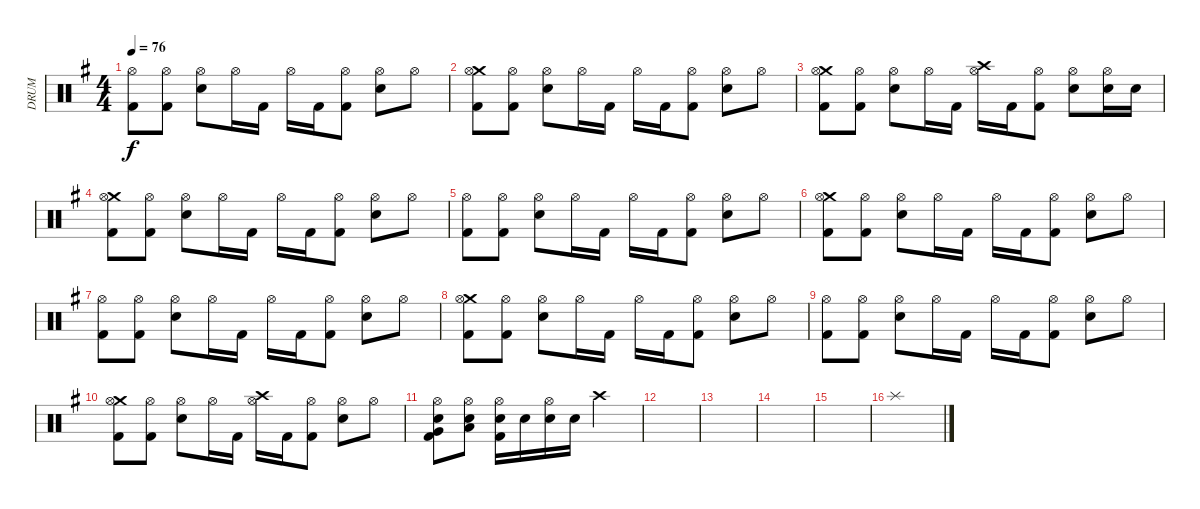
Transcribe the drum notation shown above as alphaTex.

\track ("DRUM" "DRUM") {instrument percussion}
\staff {score}
\articulation defaults
\ts (4 4)
\tempo 76
\clef neutral
\ks eminor
("Hi-Hat (open)" "Kick (hit) 2").8{dy f} ("Hi-Hat (open)" "Kick (hit) 2").8 ("Hi-Hat (open)" "Electric Snare (hit)").8 "Hi-Hat (open)".16 "Kick (hit) 2".16 "Hi-Hat (open)".16 "Kick (hit) 2".16 ("Hi-Hat (open)" "Kick (hit) 2").8 ("Hi-Hat (open)" "Electric Snare (hit)").8 "Hi-Hat (open)".8 |
("Crash medium (hit)" "Hi-Hat (open)" "Kick (hit) 2").8 ("Hi-Hat (open)" "Kick (hit) 2").8 ("Hi-Hat (open)" "Electric Snare (hit)").8 "Hi-Hat (open)".16 "Kick (hit) 2".16 "Hi-Hat (open)".16 "Kick (hit) 2".16 ("Hi-Hat (open)" "Kick (hit) 2").8 ("Hi-Hat (open)" "Electric Snare (hit)").8 "Hi-Hat (open)".8 |
("Crash medium (hit)" "Hi-Hat (open)" "Kick (hit) 2").8 ("Hi-Hat (open)" "Kick (hit) 2").8 ("Hi-Hat (open)" "Electric Snare (hit)").8 "Hi-Hat (open)".16 "Kick (hit) 2".16 ("Crash high (hit)" "Hi-Hat (open)").16 "Kick (hit) 2".16 ("Hi-Hat (open)" "Kick (hit) 2").8 ("Hi-Hat (open)" "Electric Snare (hit)").8 ("Hi-Hat (open)" "Electric Snare (hit)").16 "Electric Snare (hit)".16 |
("Crash medium (hit)" "Hi-Hat (open)" "Kick (hit) 2").8 ("Hi-Hat (open)" "Kick (hit) 2").8 ("Hi-Hat (open)" "Electric Snare (hit)").8 "Hi-Hat (open)".16 "Kick (hit) 2".16 "Hi-Hat (open)".16 "Kick (hit) 2".16 ("Hi-Hat (open)" "Kick (hit) 2").8 ("Hi-Hat (open)" "Electric Snare (hit)").8 "Hi-Hat (open)".8 |
("Hi-Hat (open)" "Kick (hit) 2").8 ("Hi-Hat (open)" "Kick (hit) 2").8 ("Hi-Hat (open)" "Electric Snare (hit)").8 "Hi-Hat (open)".16 "Kick (hit) 2".16 "Hi-Hat (open)".16 "Kick (hit) 2".16 ("Hi-Hat (open)" "Kick (hit) 2").8 ("Hi-Hat (open)" "Electric Snare (hit)").8 "Hi-Hat (open)".8 |
("Crash medium (hit)" "Hi-Hat (open)" "Kick (hit) 2").8 ("Hi-Hat (open)" "Kick (hit) 2").8 ("Hi-Hat (open)" "Electric Snare (hit)").8 "Hi-Hat (open)".16 "Kick (hit) 2".16 "Hi-Hat (open)".16 "Kick (hit) 2".16 ("Hi-Hat (open)" "Kick (hit) 2").8 ("Hi-Hat (open)" "Electric Snare (hit)").8 "Hi-Hat (open)".8 |
("Hi-Hat (open)" "Kick (hit) 2").8 ("Hi-Hat (open)" "Kick (hit) 2").8 ("Hi-Hat (open)" "Electric Snare (hit)").8 "Hi-Hat (open)".16 "Kick (hit) 2".16 "Hi-Hat (open)".16 "Kick (hit) 2".16 ("Hi-Hat (open)" "Kick (hit) 2").8 ("Hi-Hat (open)" "Electric Snare (hit)").8 "Hi-Hat (open)".8 |
("Crash medium (hit)" "Hi-Hat (open)" "Kick (hit) 2").8 ("Hi-Hat (open)" "Kick (hit) 2").8 ("Hi-Hat (open)" "Electric Snare (hit)").8 "Hi-Hat (open)".16 "Kick (hit) 2".16 "Hi-Hat (open)".16 "Kick (hit) 2".16 ("Hi-Hat (open)" "Kick (hit) 2").8 ("Hi-Hat (open)" "Electric Snare (hit)").8 "Hi-Hat (open)".8 |
("Hi-Hat (open)" "Kick (hit) 2").8 ("Hi-Hat (open)" "Kick (hit) 2").8 ("Hi-Hat (open)" "Electric Snare (hit)").8 "Hi-Hat (open)".16 "Kick (hit) 2".16 "Hi-Hat (open)".16 "Kick (hit) 2".16 ("Hi-Hat (open)" "Kick (hit) 2").8 ("Hi-Hat (open)" "Electric Snare (hit)").8 "Hi-Hat (open)".8 |
("Crash medium (hit)" "Hi-Hat (open)" "Kick (hit) 2").8 ("Hi-Hat (open)" "Kick (hit) 2").8 ("Hi-Hat (open)" "Electric Snare (hit)").8 "Hi-Hat (open)".16 "Kick (hit) 2".16 ("Crash high (hit)" "Hi-Hat (open)").16 "Kick (hit) 2".16 ("Hi-Hat (open)" "Kick (hit) 2").8 ("Hi-Hat (open)" "Electric Snare (hit)").8 "Hi-Hat (open)".8 |
("Hi-Hat (open)" "Electric Snare (hit)" "Very Low Tom (hit)" "Kick (hit) 2").8 ("Hi-Hat (open)" "Electric Snare (hit)" "Low Floor Tom (hit)").8 ("Hi-Hat (open)" "Electric Snare (hit)" "Kick (hit) 2").16 "Electric Snare (hit)".16 ("Hi-Hat (open)" "Electric Snare (hit)").16 "Electric Snare (hit)".16 "Crash high (hit)".2 |
|
|
|
|
"Splash (hit)".1
